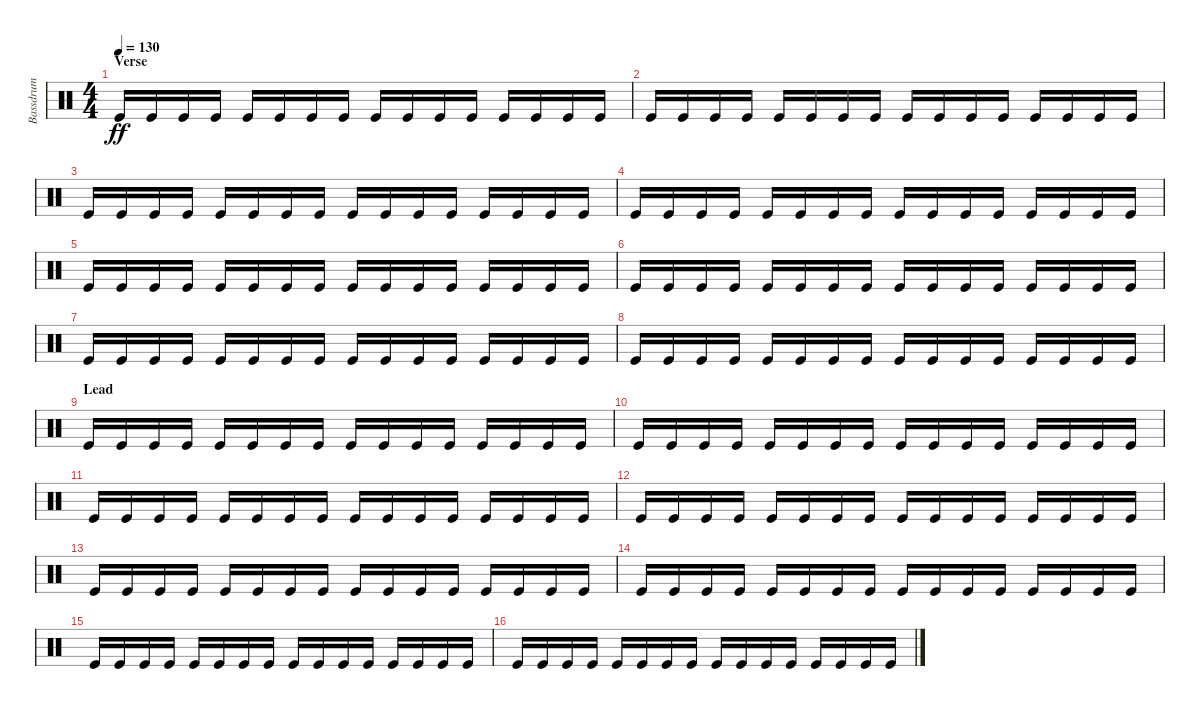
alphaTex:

\track ("Bassdrum" "Bassdrum") {instrument percussion}
\staff {score}
\articulation defaults
\ts (4 4)
\section ("" "Verse")
\tempo 130
\clef neutral
\ks c "Kick (hit)".16{dy ff} "Kick (hit)".16 "Kick (hit)".16 "Kick (hit)".16 "Kick (hit)".16 "Kick (hit)".16 "Kick (hit)".16 "Kick (hit)".16 "Kick (hit)".16 "Kick (hit)".16 "Kick (hit)".16 "Kick (hit)".16 "Kick (hit)".16 "Kick (hit)".16 "Kick (hit)".16 "Kick (hit)".16
|
"Kick (hit)".16 "Kick (hit)".16 "Kick (hit)".16 "Kick (hit)".16 "Kick (hit)".16 "Kick (hit)".16 "Kick (hit)".16 "Kick (hit)".16 "Kick (hit)".16 "Kick (hit)".16 "Kick (hit)".16 "Kick (hit)".16 "Kick (hit)".16 "Kick (hit)".16 "Kick (hit)".16 "Kick (hit)".16 |
"Kick (hit)".16 "Kick (hit)".16 "Kick (hit)".16 "Kick (hit)".16 "Kick (hit)".16 "Kick (hit)".16 "Kick (hit)".16 "Kick (hit)".16 "Kick (hit)".16 "Kick (hit)".16 "Kick (hit)".16 "Kick (hit)".16 "Kick (hit)".16 "Kick (hit)".16 "Kick (hit)".16 "Kick (hit)".16 |
"Kick (hit)".16 "Kick (hit)".16 "Kick (hit)".16 "Kick (hit)".16 "Kick (hit)".16 "Kick (hit)".16 "Kick (hit)".16 "Kick (hit)".16 "Kick (hit)".16 "Kick (hit)".16 "Kick (hit)".16 "Kick (hit)".16 "Kick (hit)".16 "Kick (hit)".16 "Kick (hit)".16 "Kick (hit)".16 |
"Kick (hit)".16 "Kick (hit)".16 "Kick (hit)".16 "Kick (hit)".16 "Kick (hit)".16 "Kick (hit)".16 "Kick (hit)".16 "Kick (hit)".16 "Kick (hit)".16 "Kick (hit)".16 "Kick (hit)".16 "Kick (hit)".16 "Kick (hit)".16 "Kick (hit)".16 "Kick (hit)".16 "Kick (hit)".16 |
"Kick (hit)".16 "Kick (hit)".16 "Kick (hit)".16 "Kick (hit)".16 "Kick (hit)".16 "Kick (hit)".16 "Kick (hit)".16 "Kick (hit)".16 "Kick (hit)".16 "Kick (hit)".16 "Kick (hit)".16 "Kick (hit)".16 "Kick (hit)".16 "Kick (hit)".16 "Kick (hit)".16 "Kick (hit)".16 |
"Kick (hit)".16 "Kick (hit)".16 "Kick (hit)".16 "Kick (hit)".16 "Kick (hit)".16 "Kick (hit)".16 "Kick (hit)".16 "Kick (hit)".16 "Kick (hit)".16 "Kick (hit)".16 "Kick (hit)".16 "Kick (hit)".16 "Kick (hit)".16 "Kick (hit)".16 "Kick (hit)".16 "Kick (hit)".16 |
"Kick (hit)".16 "Kick (hit)".16 "Kick (hit)".16 "Kick (hit)".16 "Kick (hit)".16 "Kick (hit)".16 "Kick (hit)".16 "Kick (hit)".16 "Kick (hit)".16 "Kick (hit)".16 "Kick (hit)".16 "Kick (hit)".16 "Kick (hit)".16 "Kick (hit)".16 "Kick (hit)".16 "Kick (hit)".16 |
\section ("" "Lead")
"Kick (hit)".16 "Kick (hit)".16 "Kick (hit)".16 "Kick (hit)".16 "Kick (hit)".16 "Kick (hit)".16 "Kick (hit)".16 "Kick (hit)".16 "Kick (hit)".16 "Kick (hit)".16 "Kick (hit)".16 "Kick (hit)".16 "Kick (hit)".16 "Kick (hit)".16 "Kick (hit)".16 "Kick (hit)".16 |
"Kick (hit)".16 "Kick (hit)".16 "Kick (hit)".16 "Kick (hit)".16 "Kick (hit)".16 "Kick (hit)".16 "Kick (hit)".16 "Kick (hit)".16 "Kick (hit)".16 "Kick (hit)".16 "Kick (hit)".16 "Kick (hit)".16 "Kick (hit)".16 "Kick (hit)".16 "Kick (hit)".16 "Kick (hit)".16 |
"Kick (hit)".16 "Kick (hit)".16 "Kick (hit)".16 "Kick (hit)".16 "Kick (hit)".16 "Kick (hit)".16 "Kick (hit)".16 "Kick (hit)".16 "Kick (hit)".16 "Kick (hit)".16 "Kick (hit)".16 "Kick (hit)".16 "Kick (hit)".16 "Kick (hit)".16 "Kick (hit)".16 "Kick (hit)".16 |
"Kick (hit)".16 "Kick (hit)".16 "Kick (hit)".16 "Kick (hit)".16 "Kick (hit)".16 "Kick (hit)".16 "Kick (hit)".16 "Kick (hit)".16 "Kick (hit)".16 "Kick (hit)".16 "Kick (hit)".16 "Kick (hit)".16 "Kick (hit)".16 "Kick (hit)".16 "Kick (hit)".16 "Kick (hit)".16 |
"Kick (hit)".16 "Kick (hit)".16 "Kick (hit)".16 "Kick (hit)".16 "Kick (hit)".16 "Kick (hit)".16 "Kick (hit)".16 "Kick (hit)".16 "Kick (hit)".16 "Kick (hit)".16 "Kick (hit)".16 "Kick (hit)".16 "Kick (hit)".16 "Kick (hit)".16 "Kick (hit)".16 "Kick (hit)".16 |
"Kick (hit)".16 "Kick (hit)".16 "Kick (hit)".16 "Kick (hit)".16 "Kick (hit)".16 "Kick (hit)".16 "Kick (hit)".16 "Kick (hit)".16 "Kick (hit)".16 "Kick (hit)".16 "Kick (hit)".16 "Kick (hit)".16 "Kick (hit)".16 "Kick (hit)".16 "Kick (hit)".16 "Kick (hit)".16 |
"Kick (hit)".16 "Kick (hit)".16 "Kick (hit)".16 "Kick (hit)".16 "Kick (hit)".16 "Kick (hit)".16 "Kick (hit)".16 "Kick (hit)".16 "Kick (hit)".16 "Kick (hit)".16 "Kick (hit)".16 "Kick (hit)".16 "Kick (hit)".16 "Kick (hit)".16 "Kick (hit)".16 "Kick (hit)".16 |
"Kick (hit)".16 "Kick (hit)".16 "Kick (hit)".16 "Kick (hit)".16 "Kick (hit)".16 "Kick (hit)".16 "Kick (hit)".16 "Kick (hit)".16 "Kick (hit)".16 "Kick (hit)".16 "Kick (hit)".16 "Kick (hit)".16 "Kick (hit)".16 "Kick (hit)".16 "Kick (hit)".16 "Kick (hit)".16
